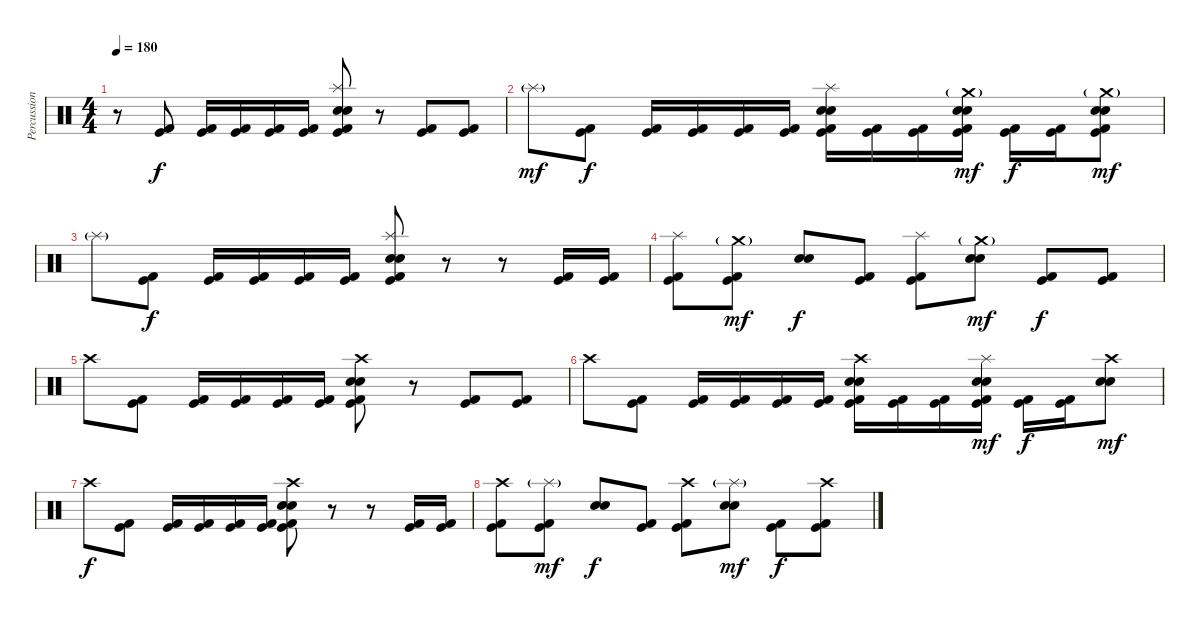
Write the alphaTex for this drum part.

\track ("Percussion" "Percussion") {instrument percussion}
\staff {score}
\articulation defaults
\ts (4 4)
\tempo 180
\clef neutral
\ks c
r.8{dy f} ("Kick (hit) 2" "Kick (hit)").8 ("Kick (hit) 2" "Kick (hit)").16 ("Kick (hit) 2" "Kick (hit)").16 ("Kick (hit) 2" "Kick (hit)").16 ("Kick (hit) 2" "Kick (hit)").16 ("Splash (hit)" "Electric Snare (hit)" "Electric Snare (hit)" "Kick (hit) 2" "Kick (hit)").8 r.8 ("Kick (hit) 2" "Kick (hit)").8 ("Kick (hit) 2" "Kick (hit)").8 |
"Splash (hit)"{g}.8{dy mf} ("Kick (hit) 2" "Kick (hit)").8{dy f} ("Kick (hit) 2" "Kick (hit)").16 ("Kick (hit) 2" "Kick (hit)").16 ("Kick (hit) 2" "Kick (hit)").16 ("Kick (hit) 2" "Kick (hit)").16 ("Splash (hit)" "Electric Snare (hit)" "Electric Snare (hit)" "Kick (hit) 2" "Kick (hit)").16 ("Kick (hit) 2" "Kick (hit)").16 ("Kick (hit) 2" "Kick (hit)").16 ("Crash medium (hit)"{g} "Electric Snare (hit)" "Electric Snare (hit)" "Kick (hit) 2" "Kick (hit)").16{dy mf} ("Kick (hit) 2" "Kick (hit)").16{dy f} ("Kick (hit) 2" "Kick (hit)").16 ("Crash medium (hit)"{g} "Electric Snare (hit)" "Electric Snare (hit)" "Kick (hit) 2" "Kick (hit)").8{dy mf} |
"Splash (hit)"{g}.8 ("Kick (hit) 2" "Kick (hit)").8{dy f} ("Kick (hit) 2" "Kick (hit)").16 ("Kick (hit) 2" "Kick (hit)").16 ("Kick (hit) 2" "Kick (hit)").16 ("Kick (hit) 2" "Kick (hit)").16 ("Splash (hit)" "Electric Snare (hit)" "Electric Snare (hit)" "Kick (hit) 2" "Kick (hit)").8 r.8 r.8 ("Kick (hit) 2" "Kick (hit)").16 ("Kick (hit) 2" "Kick (hit)").16 |
("Splash (hit)" "Kick (hit) 2" "Kick (hit)").8 ("Crash medium (hit)"{g} "Kick (hit) 2" "Kick (hit)").8{dy mf} ("Electric Snare (hit)" "Electric Snare (hit)").8{dy f} ("Kick (hit) 2" "Kick (hit)").8 ("Splash (hit)" "Kick (hit) 2" "Kick (hit)").8 ("Crash medium (hit)"{g} "Electric Snare (hit)" "Electric Snare (hit)").8{dy mf} ("Kick (hit) 2" "Kick (hit)").8{dy f} ("Kick (hit) 2" "Kick (hit)").8 |
"Crash high (hit)".8 ("Kick (hit) 2" "Kick (hit)").8 ("Kick (hit) 2" "Kick (hit)").16 ("Kick (hit) 2" "Kick (hit)").16 ("Kick (hit) 2" "Kick (hit)").16 ("Kick (hit) 2" "Kick (hit)").16 ("Crash high (hit)" "Electric Snare (hit)" "Electric Snare (hit)" "Kick (hit) 2" "Kick (hit)").8 r.8 ("Kick (hit) 2" "Kick (hit)").8 ("Kick (hit) 2" "Kick (hit)").8 |
"Crash high (hit)".8 ("Kick (hit) 2" "Kick (hit)").8 ("Kick (hit) 2" "Kick (hit)").16 ("Kick (hit) 2" "Kick (hit)").16 ("Kick (hit) 2" "Kick (hit)").16 ("Kick (hit) 2" "Kick (hit)").16 ("Crash high (hit)" "Electric Snare (hit)" "Electric Snare (hit)" "Kick (hit) 2" "Kick (hit)").16 ("Kick (hit) 2" "Kick (hit)").16 ("Kick (hit) 2" "Kick (hit)").16 ("Splash (hit)" "Electric Snare (hit)" "Electric Snare (hit)" "Kick (hit) 2" "Kick (hit)").16{dy mf} ("Kick (hit) 2" "Kick (hit)").16{dy f} ("Kick (hit) 2" "Kick (hit)").16 ("Crash high (hit)" "Electric Snare (hit)" "Electric Snare (hit)").8{dy mf} |
"Crash high (hit)".8{dy f} ("Kick (hit) 2" "Kick (hit)").8 ("Kick (hit) 2" "Kick (hit)").16 ("Kick (hit) 2" "Kick (hit)").16 ("Kick (hit) 2" "Kick (hit)").16 ("Kick (hit) 2" "Kick (hit)").16 ("Crash high (hit)" "Electric Snare (hit)" "Electric Snare (hit)" "Kick (hit) 2" "Kick (hit)").8 r.8 r.8 ("Kick (hit) 2" "Kick (hit)").16 ("Kick (hit) 2" "Kick (hit)").16 |
("Crash high (hit)" "Kick (hit) 2" "Kick (hit)").8 ("Splash (hit)"{g} "Kick (hit) 2" "Kick (hit)").8{dy mf} ("Electric Snare (hit)" "Electric Snare (hit)").8{dy f} ("Kick (hit) 2" "Kick (hit)").8 ("Crash high (hit)" "Kick (hit) 2" "Kick (hit)").8 ("Splash (hit)"{g} "Electric Snare (hit)" "Electric Snare (hit)").8{dy mf} ("Kick (hit) 2" "Kick (hit)").8{dy f} ("Crash high (hit)" "Kick (hit) 2" "Kick (hit)").8
